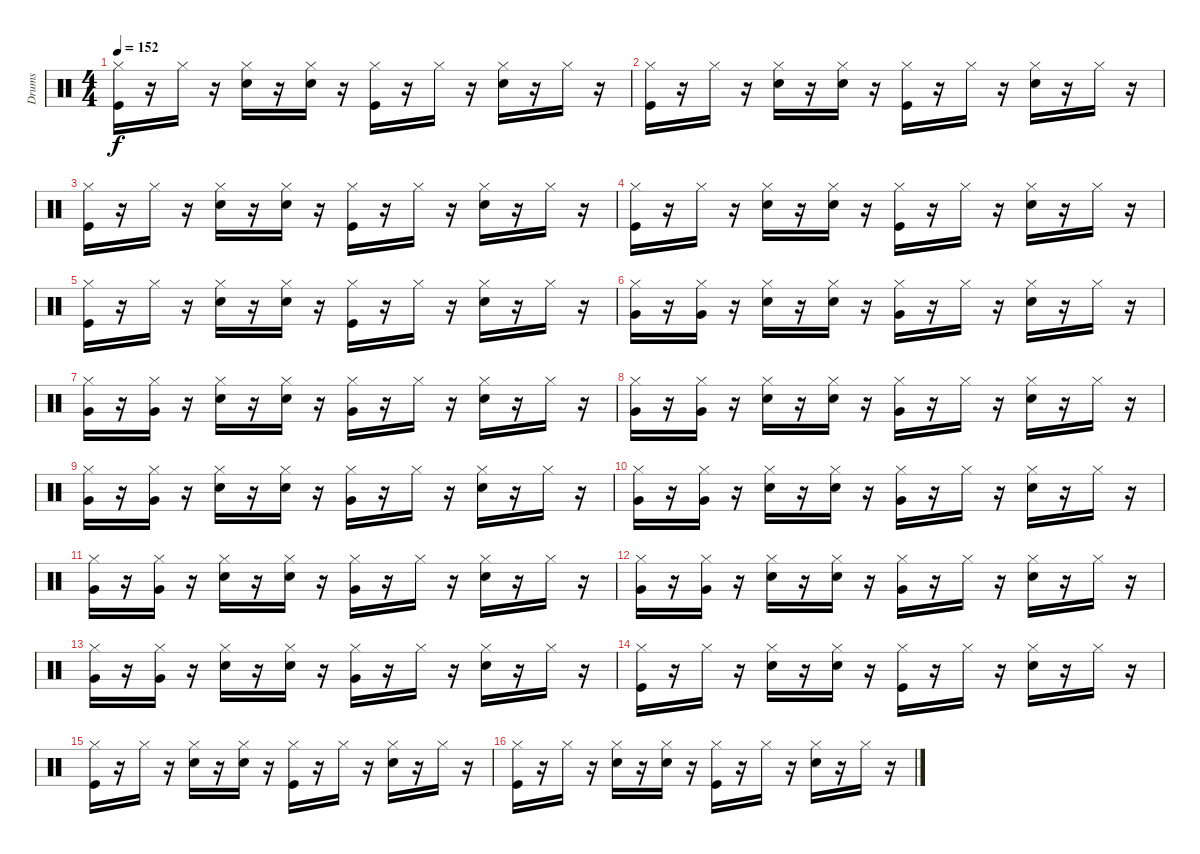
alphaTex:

\track ("Drums               " "Drums     ") {instrument percussion}
\staff {score}
\articulation defaults
\ts (4 4)
\tempo 152
\clef neutral
\ks c
("Kick (hit)" "Hi-Hat (closed)").16{dy f} r.16 "Hi-Hat (closed)".16 r.16 ("Hi-Hat (closed)" "Electric Snare (hit)").16 r.16 ("Electric Snare (hit)" "Hi-Hat (closed)").16 r.16 ("Kick (hit)" "Hi-Hat (closed)").16 r.16 "Hi-Hat (closed)".16 r.16 ("Electric Snare (hit)" "Hi-Hat (closed)").16 r.16 "Hi-Hat (closed)".16 r.16 |
("Kick (hit)" "Hi-Hat (closed)").16 r.16 "Hi-Hat (closed)".16 r.16 ("Electric Snare (hit)" "Hi-Hat (closed)").16 r.16 ("Electric Snare (hit)" "Hi-Hat (closed)").16 r.16 ("Kick (hit)" "Hi-Hat (closed)").16 r.16 "Hi-Hat (closed)".16 r.16 ("Electric Snare (hit)" "Hi-Hat (closed)").16 r.16 "Hi-Hat (closed)".16 r.16 |
("Kick (hit)" "Hi-Hat (closed)").16 r.16 "Hi-Hat (closed)".16 r.16 ("Electric Snare (hit)" "Hi-Hat (closed)").16 r.16 ("Electric Snare (hit)" "Hi-Hat (closed)").16 r.16 ("Kick (hit)" "Hi-Hat (closed)").16 r.16 "Hi-Hat (closed)".16 r.16 ("Electric Snare (hit)" "Hi-Hat (closed)").16 r.16 "Hi-Hat (closed)".16 r.16 |
("Hi-Hat (closed)" "Kick (hit)").16 r.16 "Hi-Hat (closed)".16 r.16 ("Electric Snare (hit)" "Hi-Hat (closed)").16 r.16 ("Electric Snare (hit)" "Hi-Hat (closed)").16 r.16 ("Kick (hit)" "Hi-Hat (closed)").16 r.16 "Hi-Hat (closed)".16 r.16 ("Electric Snare (hit)" "Hi-Hat (closed)").16 r.16 "Hi-Hat (closed)".16 r.16 |
("Kick (hit)" "Hi-Hat (closed)").16 r.16 "Hi-Hat (closed)".16 r.16 ("Electric Snare (hit)" "Hi-Hat (closed)").16 r.16 ("Hi-Hat (closed)" "Electric Snare (hit)").16 r.16 ("Kick (hit)" "Hi-Hat (closed)").16 r.16 "Hi-Hat (closed)".16 r.16 ("Electric Snare (hit)" "Hi-Hat (closed)").16 r.16 "Hi-Hat (closed)".16 r.16 |
("Very Low Tom (hit)" "Hi-Hat (closed)").16 r.16 ("Very Low Tom (hit)" "Hi-Hat (closed)").16 r.16 ("Electric Snare (hit)" "Hi-Hat (closed)").16 r.16 ("Electric Snare (hit)" "Hi-Hat (closed)").16 r.16 ("Very Low Tom (hit)" "Hi-Hat (closed)").16 r.16 "Hi-Hat (closed)".16 r.16 ("Hi-Hat (closed)" "Electric Snare (hit)").16 r.16 "Hi-Hat (closed)".16 r.16 |
("Very Low Tom (hit)" "Hi-Hat (closed)").16 r.16 ("Hi-Hat (closed)" "Very Low Tom (hit)").16 r.16 ("Electric Snare (hit)" "Hi-Hat (closed)").16 r.16 ("Electric Snare (hit)" "Hi-Hat (closed)").16 r.16 ("Very Low Tom (hit)" "Hi-Hat (closed)").16 r.16 "Hi-Hat (closed)".16 r.16 ("Electric Snare (hit)" "Hi-Hat (closed)").16 r.16 "Hi-Hat (closed)".16 r.16 |
("Hi-Hat (closed)" "Very Low Tom (hit)").16 r.16 ("Hi-Hat (closed)" "Very Low Tom (hit)").16 r.16 ("Electric Snare (hit)" "Hi-Hat (closed)").16 r.16 ("Electric Snare (hit)" "Hi-Hat (closed)").16 r.16 ("Hi-Hat (closed)" "Very Low Tom (hit)").16 r.16 "Hi-Hat (closed)".16 r.16 ("Electric Snare (hit)" "Hi-Hat (closed)").16 r.16 "Hi-Hat (closed)".16 r.16 |
("Very Low Tom (hit)" "Hi-Hat (closed)").16 r.16 ("Hi-Hat (closed)" "Very Low Tom (hit)").16 r.16 ("Electric Snare (hit)" "Hi-Hat (closed)").16 r.16 ("Electric Snare (hit)" "Hi-Hat (closed)").16 r.16 ("Hi-Hat (closed)" "Very Low Tom (hit)").16 r.16 "Hi-Hat (closed)".16 r.16 ("Electric Snare (hit)" "Hi-Hat (closed)").16 r.16 "Hi-Hat (closed)".16 r.16 |
("Very Low Tom (hit)" "Hi-Hat (closed)").16 r.16 ("Very Low Tom (hit)" "Hi-Hat (closed)").16 r.16 ("Electric Snare (hit)" "Hi-Hat (closed)").16 r.16 ("Electric Snare (hit)" "Hi-Hat (closed)").16 r.16 ("Hi-Hat (closed)" "Very Low Tom (hit)").16 r.16 "Hi-Hat (closed)".16 r.16 ("Electric Snare (hit)" "Hi-Hat (closed)").16 r.16 "Hi-Hat (closed)".16 r.16 |
("Very Low Tom (hit)" "Hi-Hat (closed)").16 r.16 ("Very Low Tom (hit)" "Hi-Hat (closed)").16 r.16 ("Electric Snare (hit)" "Hi-Hat (closed)").16 r.16 ("Electric Snare (hit)" "Hi-Hat (closed)").16 r.16 ("Very Low Tom (hit)" "Hi-Hat (closed)").16 r.16 "Hi-Hat (closed)".16 r.16 ("Electric Snare (hit)" "Hi-Hat (closed)").16 r.16 "Hi-Hat (closed)".16 r.16 |
("Very Low Tom (hit)" "Hi-Hat (closed)").16 r.16 ("Hi-Hat (closed)" "Very Low Tom (hit)").16 r.16 ("Hi-Hat (closed)" "Electric Snare (hit)").16 r.16 ("Electric Snare (hit)" "Hi-Hat (closed)").16 r.16 ("Very Low Tom (hit)" "Hi-Hat (closed)").16 r.16 "Hi-Hat (closed)".16 r.16 ("Electric Snare (hit)" "Hi-Hat (closed)").16 r.16 "Hi-Hat (closed)".16 r.16 |
("Very Low Tom (hit)" "Hi-Hat (closed)").16 r.16 ("Very Low Tom (hit)" "Hi-Hat (closed)").16 r.16 ("Electric Snare (hit)" "Hi-Hat (closed)").16 r.16 ("Electric Snare (hit)" "Hi-Hat (closed)").16 r.16 ("Hi-Hat (closed)" "Very Low Tom (hit)").16 r.16 "Hi-Hat (closed)".16 r.16 ("Electric Snare (hit)" "Hi-Hat (closed)").16 r.16 "Hi-Hat (closed)".16 r.16 |
("Kick (hit)" "Hi-Hat (closed)").16 r.16 "Hi-Hat (closed)".16 r.16 ("Electric Snare (hit)" "Hi-Hat (closed)").16 r.16 ("Electric Snare (hit)" "Hi-Hat (closed)").16 r.16 ("Kick (hit)" "Hi-Hat (closed)").16 r.16 "Hi-Hat (closed)".16 r.16 ("Electric Snare (hit)" "Hi-Hat (closed)").16 r.16 "Hi-Hat (closed)".16 r.16 |
("Hi-Hat (closed)" "Kick (hit)").16 r.16 "Hi-Hat (closed)".16 r.16 ("Electric Snare (hit)" "Hi-Hat (closed)").16 r.16 ("Electric Snare (hit)" "Hi-Hat (closed)").16 r.16 ("Kick (hit)" "Hi-Hat (closed)").16 r.16 "Hi-Hat (closed)".16 r.16 ("Electric Snare (hit)" "Hi-Hat (closed)").16 r.16 "Hi-Hat (closed)".16 r.16 |
("Kick (hit)" "Hi-Hat (closed)").16 r.16 "Hi-Hat (closed)".16 r.16 ("Electric Snare (hit)" "Hi-Hat (closed)").16 r.16 ("Hi-Hat (closed)" "Electric Snare (hit)").16 r.16 ("Kick (hit)" "Hi-Hat (closed)").16 r.16 "Hi-Hat (closed)".16 r.16 ("Electric Snare (hit)" "Hi-Hat (closed)").16 r.16 "Hi-Hat (closed)".16 r.16
